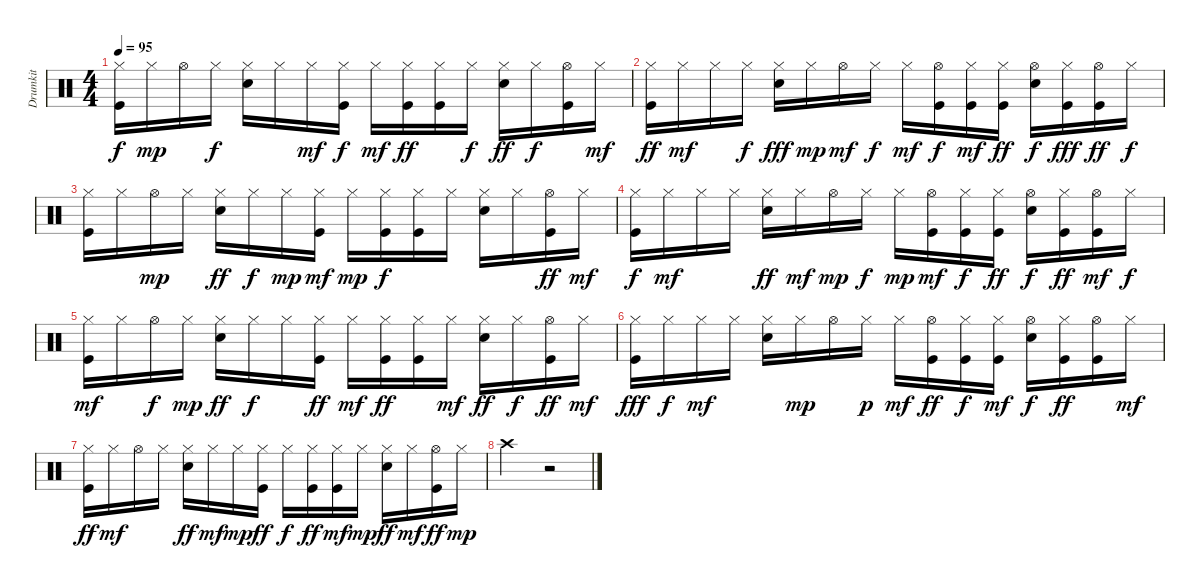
\track ("Drumkit" "Drumkit") {instrument percussion}
\staff {score}
\articulation defaults
\ts (4 4)
\tempo 95
\clef neutral
\ks c
("Kick (hit)" "Hi-Hat (closed)").16{dy f} "Hi-Hat (closed)".16{dy mp} "Hi-Hat (open)".16 "Hi-Hat (closed)".16{dy f} ("Snare (hit) 2" "Hi-Hat (closed)").16 "Hi-Hat (closed)".16 "Hi-Hat (closed)".16{dy mf} ("Kick (hit)" "Hi-Hat (closed)").16{dy f} "Hi-Hat (closed)".16{dy mf} ("Kick (hit)" "Hi-Hat (closed)").16{dy ff} ("Kick (hit)" "Hi-Hat (closed)").16 "Hi-Hat (closed)".16{dy f} ("Snare (hit) 2" "Hi-Hat (closed)").16{dy ff} "Hi-Hat (closed)".16{dy f} ("Kick (hit)" "Hi-Hat (open)").16 "Hi-Hat (closed)".16{dy mf} |
("Kick (hit)" "Hi-Hat (closed)").16{dy ff} "Hi-Hat (closed)".16{dy mf} "Hi-Hat (closed)".16 "Hi-Hat (closed)".16{dy f} ("Snare (hit) 2" "Hi-Hat (closed)").16{dy fff} "Hi-Hat (closed)".16{dy mp} "Hi-Hat (open)".16{dy mf} "Hi-Hat (closed)".16{dy f} "Hi-Hat (closed)".16{dy mf} ("Kick (hit)" "Hi-Hat (open)").16{dy f} ("Kick (hit)" "Hi-Hat (closed)").16{dy mf} ("Kick (hit)" "Hi-Hat (closed)").16{dy ff} ("Snare (hit) 2" "Hi-Hat (open)").16{dy f} ("Kick (hit)" "Hi-Hat (closed)").16{dy fff} ("Kick (hit)" "Hi-Hat (open)").16{dy ff} "Hi-Hat (closed)".16{dy f} |
("Kick (hit)" "Hi-Hat (closed)").16 "Hi-Hat (closed)".16 "Hi-Hat (open)".16{dy mp} "Hi-Hat (closed)".16 ("Snare (hit) 2" "Hi-Hat (closed)").16{dy ff} "Hi-Hat (closed)".16{dy f} "Hi-Hat (closed)".16{dy mp} ("Kick (hit)" "Hi-Hat (closed)").16{dy mf} "Hi-Hat (closed)".16{dy mp} ("Kick (hit)" "Hi-Hat (closed)").16{dy f} ("Kick (hit)" "Hi-Hat (closed)").16 "Hi-Hat (closed)".16 ("Snare (hit) 2" "Hi-Hat (closed)").16 "Hi-Hat (closed)".16 ("Kick (hit)" "Hi-Hat (open)").16{dy ff} "Hi-Hat (closed)".16{dy mf} |
("Kick (hit)" "Hi-Hat (closed)").16{dy f} "Hi-Hat (closed)".16{dy mf} "Hi-Hat (closed)".16 "Hi-Hat (closed)".16 ("Snare (hit) 2" "Hi-Hat (closed)").16{dy ff} "Hi-Hat (closed)".16{dy mf} "Hi-Hat (open)".16{dy mp} "Hi-Hat (closed)".16{dy f} "Hi-Hat (closed)".16{dy mp} ("Kick (hit)" "Hi-Hat (open)").16{dy mf} ("Kick (hit)" "Hi-Hat (closed)").16{dy f} ("Kick (hit)" "Hi-Hat (closed)").16{dy ff} ("Snare (hit) 2" "Hi-Hat (open)").16{dy f} ("Kick (hit)" "Hi-Hat (closed)").16{dy ff} ("Kick (hit)" "Hi-Hat (open)").16{dy mf} "Hi-Hat (closed)".16{dy f} |
("Kick (hit)" "Hi-Hat (closed)").16{dy mf} "Hi-Hat (closed)".16 "Hi-Hat (open)".16{dy f} "Hi-Hat (closed)".16{dy mp} ("Snare (hit) 2" "Hi-Hat (closed)").16{dy ff} "Hi-Hat (closed)".16{dy f} "Hi-Hat (closed)".16 ("Kick (hit)" "Hi-Hat (closed)").16{dy ff} "Hi-Hat (closed)".16{dy mf} ("Kick (hit)" "Hi-Hat (closed)").16{dy ff} ("Kick (hit)" "Hi-Hat (closed)").16 "Hi-Hat (closed)".16{dy mf} ("Snare (hit) 2" "Hi-Hat (closed)").16{dy ff} "Hi-Hat (closed)".16{dy f} ("Kick (hit)" "Hi-Hat (open)").16{dy ff} "Hi-Hat (closed)".16{dy mf} |
("Kick (hit)" "Hi-Hat (closed)").16{dy fff} "Hi-Hat (closed)".16{dy f} "Hi-Hat (closed)".16{dy mf} "Hi-Hat (closed)".16 ("Snare (hit) 2" "Hi-Hat (closed)").16 "Hi-Hat (closed)".16{dy mp} "Hi-Hat (open)".16 "Hi-Hat (closed)".16{dy p} "Hi-Hat (closed)".16{dy mf} ("Kick (hit)" "Hi-Hat (open)").16{dy ff} ("Kick (hit)" "Hi-Hat (closed)").16{dy f} ("Kick (hit)" "Hi-Hat (closed)").16{dy mf} ("Snare (hit) 2" "Hi-Hat (open)").16{dy f} ("Kick (hit)" "Hi-Hat (closed)").16{dy ff} ("Kick (hit)" "Hi-Hat (open)").16 "Hi-Hat (closed)".16{dy mf} |
("Kick (hit)" "Hi-Hat (closed)").16{dy ff} "Hi-Hat (closed)".16{dy mf} "Hi-Hat (open)".16 "Hi-Hat (closed)".16 ("Snare (hit) 2" "Hi-Hat (closed)").16{dy ff} "Hi-Hat (closed)".16{dy mf} "Hi-Hat (closed)".16{dy mp} ("Kick (hit)" "Hi-Hat (closed)").16{dy ff} "Hi-Hat (closed)".16{dy f} ("Kick (hit)" "Hi-Hat (closed)").16{dy ff} ("Kick (hit)" "Hi-Hat (closed)").16{dy mf} "Hi-Hat (closed)".16{dy mp} ("Snare (hit) 2" "Hi-Hat (closed)").16{dy ff} "Hi-Hat (closed)".16{dy mf} ("Kick (hit)" "Hi-Hat (open)").16{dy ff} "Hi-Hat (closed)".16{dy mp} |
"Crash high (hit)".2 r.2
